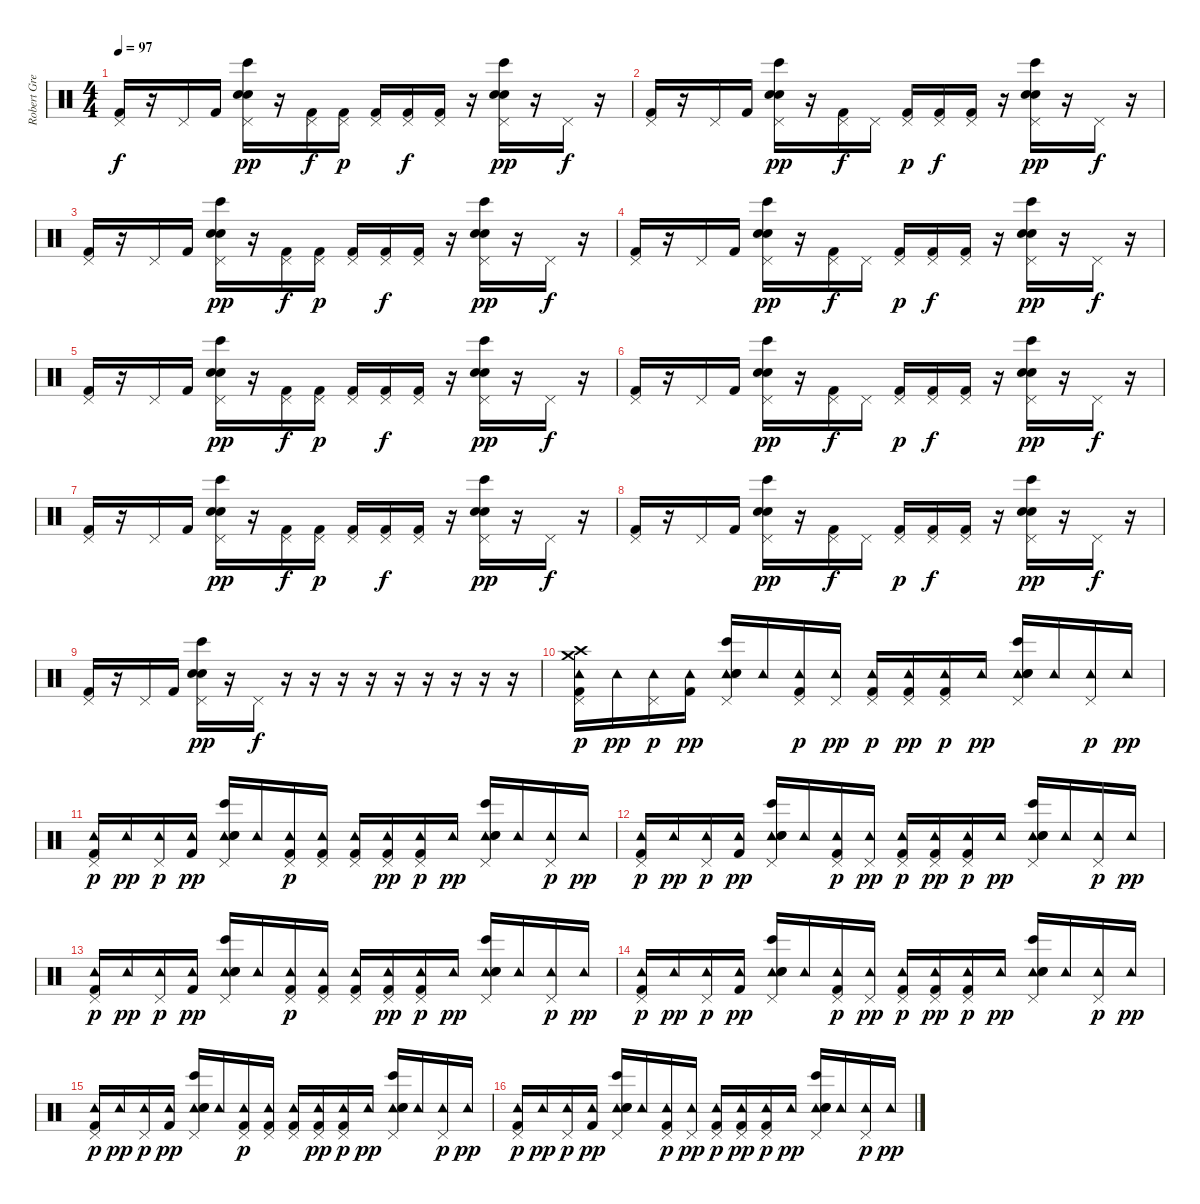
\track ("Robert Gregory Bourdan/'Groop' sound" "Robert Gre") {instrument percussion}
\staff {score}
\articulation defaults
\ts (4 4)
\tempo 97
\clef neutral
\ks c
("Pedal Hi-Hat (hit)" "Kick (hit) 2").16{dy f} r.16 "Pedal Hi-Hat (hit)".16 "Kick (hit) 2".16 ("Pedal Hi-Hat (hit)" "Electric Snare (hit)" "Snare (hit) 2" "Bongo High (hit)").16{dy pp} r.16 ("Pedal Hi-Hat (hit)" "Kick (hit) 2").16{dy f} ("Pedal Hi-Hat (hit)" "Kick (hit) 2").16{dy p} ("Pedal Hi-Hat (hit)" "Kick (hit) 2").16 ("Pedal Hi-Hat (hit)" "Kick (hit) 2").16{dy f} ("Pedal Hi-Hat (hit)" "Kick (hit) 2").16 r.16 ("Pedal Hi-Hat (hit)" "Electric Snare (hit)" "Snare (hit) 2" "Bongo High (hit)").16{dy pp} r.16 "Pedal Hi-Hat (hit)".16{dy f} r.16 |
("Pedal Hi-Hat (hit)" "Kick (hit) 2").16 r.16 "Pedal Hi-Hat (hit)".16 "Kick (hit) 2".16 ("Pedal Hi-Hat (hit)" "Electric Snare (hit)" "Snare (hit) 2" "Bongo High (hit)").16{dy pp} r.16 ("Pedal Hi-Hat (hit)" "Kick (hit) 2").16{dy f} "Pedal Hi-Hat (hit)".16 ("Pedal Hi-Hat (hit)" "Kick (hit) 2").16{dy p} ("Pedal Hi-Hat (hit)" "Kick (hit) 2").16{dy f} ("Pedal Hi-Hat (hit)" "Kick (hit) 2").16 r.16 ("Pedal Hi-Hat (hit)" "Electric Snare (hit)" "Snare (hit) 2" "Bongo High (hit)").16{dy pp} r.16 "Pedal Hi-Hat (hit)".16{dy f} r.16 |
("Pedal Hi-Hat (hit)" "Kick (hit) 2").16 r.16 "Pedal Hi-Hat (hit)".16 "Kick (hit) 2".16 ("Pedal Hi-Hat (hit)" "Electric Snare (hit)" "Snare (hit) 2" "Bongo High (hit)").16{dy pp} r.16 ("Pedal Hi-Hat (hit)" "Kick (hit) 2").16{dy f} ("Pedal Hi-Hat (hit)" "Kick (hit) 2").16{dy p} ("Pedal Hi-Hat (hit)" "Kick (hit) 2").16 ("Pedal Hi-Hat (hit)" "Kick (hit) 2").16{dy f} ("Pedal Hi-Hat (hit)" "Kick (hit) 2").16 r.16 ("Pedal Hi-Hat (hit)" "Electric Snare (hit)" "Snare (hit) 2" "Bongo High (hit)").16{dy pp} r.16 "Pedal Hi-Hat (hit)".16{dy f} r.16 |
("Pedal Hi-Hat (hit)" "Kick (hit) 2").16 r.16 "Pedal Hi-Hat (hit)".16 "Kick (hit) 2".16 ("Pedal Hi-Hat (hit)" "Electric Snare (hit)" "Snare (hit) 2" "Bongo High (hit)").16{dy pp} r.16 ("Pedal Hi-Hat (hit)" "Kick (hit) 2").16{dy f} "Pedal Hi-Hat (hit)".16 ("Pedal Hi-Hat (hit)" "Kick (hit) 2").16{dy p} ("Pedal Hi-Hat (hit)" "Kick (hit) 2").16{dy f} ("Pedal Hi-Hat (hit)" "Kick (hit) 2").16 r.16 ("Pedal Hi-Hat (hit)" "Electric Snare (hit)" "Snare (hit) 2" "Bongo High (hit)").16{dy pp} r.16 "Pedal Hi-Hat (hit)".16{dy f} r.16 |
("Pedal Hi-Hat (hit)" "Kick (hit) 2").16 r.16 "Pedal Hi-Hat (hit)".16 "Kick (hit) 2".16 ("Pedal Hi-Hat (hit)" "Electric Snare (hit)" "Snare (hit) 2" "Bongo High (hit)").16{dy pp} r.16 ("Pedal Hi-Hat (hit)" "Kick (hit) 2").16{dy f} ("Pedal Hi-Hat (hit)" "Kick (hit) 2").16{dy p} ("Pedal Hi-Hat (hit)" "Kick (hit) 2").16 ("Pedal Hi-Hat (hit)" "Kick (hit) 2").16{dy f} ("Pedal Hi-Hat (hit)" "Kick (hit) 2").16 r.16 ("Pedal Hi-Hat (hit)" "Electric Snare (hit)" "Snare (hit) 2" "Bongo High (hit)").16{dy pp} r.16 "Pedal Hi-Hat (hit)".16{dy f} r.16 |
("Pedal Hi-Hat (hit)" "Kick (hit) 2").16 r.16 "Pedal Hi-Hat (hit)".16 "Kick (hit) 2".16 ("Pedal Hi-Hat (hit)" "Electric Snare (hit)" "Snare (hit) 2" "Bongo High (hit)").16{dy pp} r.16 ("Pedal Hi-Hat (hit)" "Kick (hit) 2").16{dy f} "Pedal Hi-Hat (hit)".16 ("Pedal Hi-Hat (hit)" "Kick (hit) 2").16{dy p} ("Pedal Hi-Hat (hit)" "Kick (hit) 2").16{dy f} ("Pedal Hi-Hat (hit)" "Kick (hit) 2").16 r.16 ("Pedal Hi-Hat (hit)" "Electric Snare (hit)" "Snare (hit) 2" "Bongo High (hit)").16{dy pp} r.16 "Pedal Hi-Hat (hit)".16{dy f} r.16 |
("Pedal Hi-Hat (hit)" "Kick (hit) 2").16 r.16 "Pedal Hi-Hat (hit)".16 "Kick (hit) 2".16 ("Pedal Hi-Hat (hit)" "Electric Snare (hit)" "Snare (hit) 2" "Bongo High (hit)").16{dy pp} r.16 ("Pedal Hi-Hat (hit)" "Kick (hit) 2").16{dy f} ("Pedal Hi-Hat (hit)" "Kick (hit) 2").16{dy p} ("Pedal Hi-Hat (hit)" "Kick (hit) 2").16 ("Pedal Hi-Hat (hit)" "Kick (hit) 2").16{dy f} ("Pedal Hi-Hat (hit)" "Kick (hit) 2").16 r.16 ("Pedal Hi-Hat (hit)" "Electric Snare (hit)" "Snare (hit) 2" "Bongo High (hit)").16{dy pp} r.16 "Pedal Hi-Hat (hit)".16{dy f} r.16 |
("Pedal Hi-Hat (hit)" "Kick (hit) 2").16 r.16 "Pedal Hi-Hat (hit)".16 "Kick (hit) 2".16 ("Pedal Hi-Hat (hit)" "Electric Snare (hit)" "Snare (hit) 2" "Bongo High (hit)").16{dy pp} r.16 ("Pedal Hi-Hat (hit)" "Kick (hit) 2").16{dy f} "Pedal Hi-Hat (hit)".16 ("Pedal Hi-Hat (hit)" "Kick (hit) 2").16{dy p} ("Pedal Hi-Hat (hit)" "Kick (hit) 2").16{dy f} ("Pedal Hi-Hat (hit)" "Kick (hit) 2").16 r.16 ("Pedal Hi-Hat (hit)" "Electric Snare (hit)" "Snare (hit) 2" "Bongo High (hit)").16{dy pp} r.16 "Pedal Hi-Hat (hit)".16{dy f} r.16 |
("Pedal Hi-Hat (hit)" "Kick (hit) 2").16 r.16 "Pedal Hi-Hat (hit)".16 "Kick (hit) 2".16 ("Pedal Hi-Hat (hit)" "Electric Snare (hit)" "Snare (hit) 2" "Bongo High (hit)").16{dy pp} r.16 "Pedal Hi-Hat (hit)".16{dy f} r.16 r.16 r.16 r.16 r.16 r.16 r.16 r.16 r.16 |
("Pedal Hi-Hat (hit)" "Tambourine (hit)" "Crash high (hit)" "Crash medium (hit)" "Kick (hit) 2").16{dy p} "Tambourine (hit)".16{dy pp} ("Pedal Hi-Hat (hit)" "Tambourine (hit)").16{dy p} ("Tambourine (hit)" "Kick (hit) 2").16{dy pp} ("Pedal Hi-Hat (hit)" "Tambourine (hit)" "Electric Snare (hit)" "Snare (hit) 2" "Bongo High (hit)").16 "Tambourine (hit)".16 ("Pedal Hi-Hat (hit)" "Tambourine (hit)" "Kick (hit) 2").16{dy p} ("Pedal Hi-Hat (hit)" "Tambourine (hit)").16{dy pp} ("Pedal Hi-Hat (hit)" "Tambourine (hit)" "Kick (hit) 2").16{dy p} ("Pedal Hi-Hat (hit)" "Tambourine (hit)" "Kick (hit) 2").16{dy pp} ("Pedal Hi-Hat (hit)" "Tambourine (hit)" "Kick (hit) 2").16{dy p} "Tambourine (hit)".16{dy pp} ("Pedal Hi-Hat (hit)" "Tambourine (hit)" "Electric Snare (hit)" "Snare (hit) 2" "Bongo High (hit)").16 "Tambourine (hit)".16 ("Pedal Hi-Hat (hit)" "Tambourine (hit)").16{dy p} "Tambourine (hit)".16{dy pp} |
("Pedal Hi-Hat (hit)" "Tambourine (hit)" "Kick (hit) 2").16{dy p} "Tambourine (hit)".16{dy pp} ("Pedal Hi-Hat (hit)" "Tambourine (hit)").16{dy p} ("Tambourine (hit)" "Kick (hit) 2").16{dy pp} ("Pedal Hi-Hat (hit)" "Tambourine (hit)" "Electric Snare (hit)" "Snare (hit) 2" "Bongo High (hit)").16 "Tambourine (hit)".16 ("Pedal Hi-Hat (hit)" "Tambourine (hit)" "Kick (hit) 2").16{dy p} ("Pedal Hi-Hat (hit)" "Tambourine (hit)" "Kick (hit) 2").16 ("Pedal Hi-Hat (hit)" "Tambourine (hit)" "Kick (hit) 2").16 ("Pedal Hi-Hat (hit)" "Tambourine (hit)" "Kick (hit) 2").16{dy pp} ("Pedal Hi-Hat (hit)" "Tambourine (hit)" "Kick (hit) 2").16{dy p} "Tambourine (hit)".16{dy pp} ("Pedal Hi-Hat (hit)" "Tambourine (hit)" "Electric Snare (hit)" "Snare (hit) 2" "Bongo High (hit)").16 "Tambourine (hit)".16 ("Pedal Hi-Hat (hit)" "Tambourine (hit)").16{dy p} "Tambourine (hit)".16{dy pp} |
("Pedal Hi-Hat (hit)" "Tambourine (hit)" "Kick (hit) 2").16{dy p} "Tambourine (hit)".16{dy pp} ("Pedal Hi-Hat (hit)" "Tambourine (hit)").16{dy p} ("Tambourine (hit)" "Kick (hit) 2").16{dy pp} ("Pedal Hi-Hat (hit)" "Tambourine (hit)" "Electric Snare (hit)" "Snare (hit) 2" "Bongo High (hit)").16 "Tambourine (hit)".16 ("Pedal Hi-Hat (hit)" "Tambourine (hit)" "Kick (hit) 2").16{dy p} ("Pedal Hi-Hat (hit)" "Tambourine (hit)").16{dy pp} ("Pedal Hi-Hat (hit)" "Tambourine (hit)" "Kick (hit) 2").16{dy p} ("Pedal Hi-Hat (hit)" "Tambourine (hit)" "Kick (hit) 2").16{dy pp} ("Pedal Hi-Hat (hit)" "Tambourine (hit)" "Kick (hit) 2").16{dy p} "Tambourine (hit)".16{dy pp} ("Pedal Hi-Hat (hit)" "Tambourine (hit)" "Electric Snare (hit)" "Snare (hit) 2" "Bongo High (hit)").16 "Tambourine (hit)".16 ("Pedal Hi-Hat (hit)" "Tambourine (hit)").16{dy p} "Tambourine (hit)".16{dy pp} |
("Pedal Hi-Hat (hit)" "Tambourine (hit)" "Kick (hit) 2").16{dy p} "Tambourine (hit)".16{dy pp} ("Pedal Hi-Hat (hit)" "Tambourine (hit)").16{dy p} ("Tambourine (hit)" "Kick (hit) 2").16{dy pp} ("Pedal Hi-Hat (hit)" "Tambourine (hit)" "Electric Snare (hit)" "Snare (hit) 2" "Bongo High (hit)").16 "Tambourine (hit)".16 ("Pedal Hi-Hat (hit)" "Tambourine (hit)" "Kick (hit) 2").16{dy p} ("Pedal Hi-Hat (hit)" "Tambourine (hit)" "Kick (hit) 2").16 ("Pedal Hi-Hat (hit)" "Tambourine (hit)" "Kick (hit) 2").16 ("Pedal Hi-Hat (hit)" "Tambourine (hit)" "Kick (hit) 2").16{dy pp} ("Pedal Hi-Hat (hit)" "Tambourine (hit)" "Kick (hit) 2").16{dy p} "Tambourine (hit)".16{dy pp} ("Pedal Hi-Hat (hit)" "Tambourine (hit)" "Electric Snare (hit)" "Snare (hit) 2" "Bongo High (hit)").16 "Tambourine (hit)".16 ("Pedal Hi-Hat (hit)" "Tambourine (hit)").16{dy p} "Tambourine (hit)".16{dy pp} |
("Pedal Hi-Hat (hit)" "Tambourine (hit)" "Kick (hit) 2").16{dy p} "Tambourine (hit)".16{dy pp} ("Pedal Hi-Hat (hit)" "Tambourine (hit)").16{dy p} ("Tambourine (hit)" "Kick (hit) 2").16{dy pp} ("Pedal Hi-Hat (hit)" "Tambourine (hit)" "Electric Snare (hit)" "Snare (hit) 2" "Bongo High (hit)").16 "Tambourine (hit)".16 ("Pedal Hi-Hat (hit)" "Tambourine (hit)" "Kick (hit) 2").16{dy p} ("Pedal Hi-Hat (hit)" "Tambourine (hit)").16{dy pp} ("Pedal Hi-Hat (hit)" "Tambourine (hit)" "Kick (hit) 2").16{dy p} ("Pedal Hi-Hat (hit)" "Tambourine (hit)" "Kick (hit) 2").16{dy pp} ("Pedal Hi-Hat (hit)" "Tambourine (hit)" "Kick (hit) 2").16{dy p} "Tambourine (hit)".16{dy pp} ("Pedal Hi-Hat (hit)" "Tambourine (hit)" "Electric Snare (hit)" "Snare (hit) 2" "Bongo High (hit)").16 "Tambourine (hit)".16 ("Pedal Hi-Hat (hit)" "Tambourine (hit)").16{dy p} "Tambourine (hit)".16{dy pp} |
("Pedal Hi-Hat (hit)" "Tambourine (hit)" "Kick (hit) 2").16{dy p} "Tambourine (hit)".16{dy pp} ("Pedal Hi-Hat (hit)" "Tambourine (hit)").16{dy p} ("Tambourine (hit)" "Kick (hit) 2").16{dy pp} ("Pedal Hi-Hat (hit)" "Tambourine (hit)" "Electric Snare (hit)" "Snare (hit) 2" "Bongo High (hit)").16 "Tambourine (hit)".16 ("Pedal Hi-Hat (hit)" "Tambourine (hit)" "Kick (hit) 2").16{dy p} ("Pedal Hi-Hat (hit)" "Tambourine (hit)" "Kick (hit) 2").16 ("Pedal Hi-Hat (hit)" "Tambourine (hit)" "Kick (hit) 2").16 ("Pedal Hi-Hat (hit)" "Tambourine (hit)" "Kick (hit) 2").16{dy pp} ("Pedal Hi-Hat (hit)" "Tambourine (hit)" "Kick (hit) 2").16{dy p} "Tambourine (hit)".16{dy pp} ("Pedal Hi-Hat (hit)" "Tambourine (hit)" "Electric Snare (hit)" "Snare (hit) 2" "Bongo High (hit)").16 "Tambourine (hit)".16 ("Pedal Hi-Hat (hit)" "Tambourine (hit)").16{dy p} "Tambourine (hit)".16{dy pp} |
("Pedal Hi-Hat (hit)" "Tambourine (hit)" "Kick (hit) 2").16{dy p} "Tambourine (hit)".16{dy pp} ("Pedal Hi-Hat (hit)" "Tambourine (hit)").16{dy p} ("Tambourine (hit)" "Kick (hit) 2").16{dy pp} ("Pedal Hi-Hat (hit)" "Tambourine (hit)" "Electric Snare (hit)" "Snare (hit) 2" "Bongo High (hit)").16 "Tambourine (hit)".16 ("Pedal Hi-Hat (hit)" "Tambourine (hit)" "Kick (hit) 2").16{dy p} ("Pedal Hi-Hat (hit)" "Tambourine (hit)").16{dy pp} ("Pedal Hi-Hat (hit)" "Tambourine (hit)" "Kick (hit) 2").16{dy p} ("Pedal Hi-Hat (hit)" "Tambourine (hit)" "Kick (hit) 2").16{dy pp} ("Pedal Hi-Hat (hit)" "Tambourine (hit)" "Kick (hit) 2").16{dy p} "Tambourine (hit)".16{dy pp} ("Pedal Hi-Hat (hit)" "Tambourine (hit)" "Electric Snare (hit)" "Snare (hit) 2" "Bongo High (hit)").16 "Tambourine (hit)".16 ("Pedal Hi-Hat (hit)" "Tambourine (hit)").16{dy p} "Tambourine (hit)".16{dy pp}
